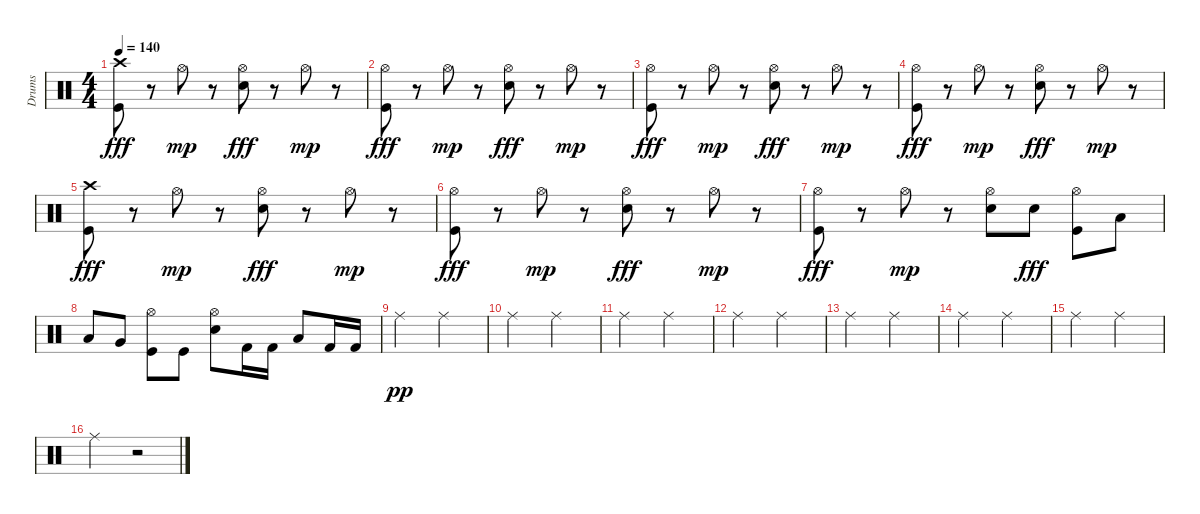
\track ("Drums" "Drums") {instrument percussion}
\staff {score}
\articulation defaults
\ts (4 4)
\tempo 140
\clef neutral
\ks c
("Crash high (hit)" "Kick (hit)").8{dy fff} r.8 "Hi-Hat (open)".8{dy mp} r.8 ("Hi-Hat (open)" "Snare (hit) 2").8{dy fff} r.8 "Hi-Hat (open)".8{dy mp} r.8 |
("Hi-Hat (open)" "Kick (hit)").8{dy fff} r.8 "Hi-Hat (open)".8{dy mp} r.8 ("Hi-Hat (open)" "Snare (hit) 2").8{dy fff} r.8 "Hi-Hat (open)".8{dy mp} r.8 |
("Hi-Hat (open)" "Kick (hit)").8{dy fff} r.8 "Hi-Hat (open)".8{dy mp} r.8 ("Hi-Hat (open)" "Snare (hit) 2").8{dy fff} r.8 "Hi-Hat (open)".8{dy mp} r.8 |
("Hi-Hat (open)" "Kick (hit)").8{dy fff} r.8 "Hi-Hat (open)".8{dy mp} r.8 ("Hi-Hat (open)" "Snare (hit) 2").8{dy fff} r.8 "Hi-Hat (open)".8{dy mp} r.8 |
("Crash high (hit)" "Kick (hit)").8{dy fff} r.8 "Hi-Hat (open)".8{dy mp} r.8 ("Hi-Hat (open)" "Snare (hit) 2").8{dy fff} r.8 "Hi-Hat (open)".8{dy mp} r.8 |
("Hi-Hat (open)" "Kick (hit)").8{dy fff} r.8 "Hi-Hat (open)".8{dy mp} r.8 ("Hi-Hat (open)" "Snare (hit) 2").8{dy fff} r.8 "Hi-Hat (open)".8{dy mp} r.8 |
("Hi-Hat (open)" "Kick (hit)").8{dy fff} r.8 "Hi-Hat (open)".8{dy mp} r.8 ("Hi-Hat (open)" "Snare (hit) 2").8 "Snare (hit) 2".8{dy fff} ("Hi-Hat (open)" "Kick (hit)").8 "Low Tom (hit)".8 |
"Low Tom (hit)".8 "Very Low Tom (hit)".8 ("Hi-Hat (open)" "Kick (hit)").8 "Kick (hit)".8 ("Hi-Hat (open)" "Snare (hit) 2").8 "Kick (hit) 2".16 "Kick (hit) 2".16 "Low Tom (hit)".8 "Kick (hit) 2".16 "Kick (hit) 2".16 |
"Ride (middle)".2{dy pp} "Ride (middle)".2 |
"Ride (middle)".2 "Ride (middle)".2 |
"Ride (middle)".2 "Ride (middle)".2 |
"Ride (middle)".2 "Ride (middle)".2 |
"Ride (middle)".2 "Ride (middle)".2 |
"Ride (middle)".2 "Ride (middle)".2 |
"Ride (middle)".2 "Ride (middle)".2 |
"Ride (middle)".2 r.2
